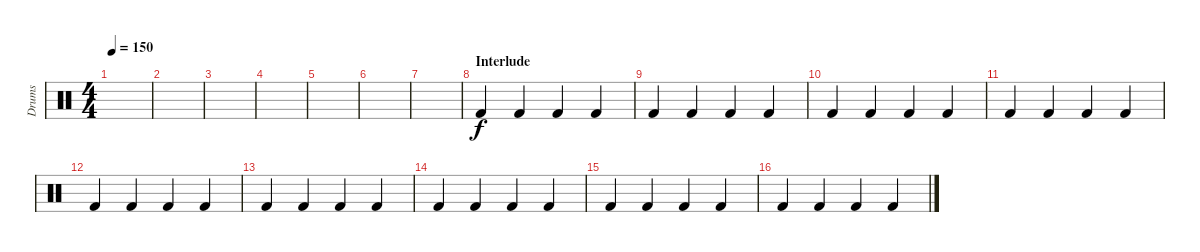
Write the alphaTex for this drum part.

\track ("Drums" "Drums") {instrument percussion}
\staff {score}
\articulation defaults
\ts (4 4)
\tempo 150
\clef neutral
\ks c
|
|
|
|
|
|
|
\section ("" "Interlude")
"Kick (hit) 2".4 "Kick (hit) 2".4 "Kick (hit) 2".4 "Kick (hit) 2".4 |
"Kick (hit) 2".4 "Kick (hit) 2".4 "Kick (hit) 2".4 "Kick (hit) 2".4 |
"Kick (hit) 2".4 "Kick (hit) 2".4 "Kick (hit) 2".4 "Kick (hit) 2".4 |
"Kick (hit) 2".4 "Kick (hit) 2".4 "Kick (hit) 2".4 "Kick (hit) 2".4 |
"Kick (hit) 2".4 "Kick (hit) 2".4 "Kick (hit) 2".4 "Kick (hit) 2".4 |
"Kick (hit) 2".4 "Kick (hit) 2".4 "Kick (hit) 2".4 "Kick (hit) 2".4 |
"Kick (hit) 2".4 "Kick (hit) 2".4 "Kick (hit) 2".4 "Kick (hit) 2".4 |
"Kick (hit) 2".4 "Kick (hit) 2".4 "Kick (hit) 2".4 "Kick (hit) 2".4 |
"Kick (hit) 2".4 "Kick (hit) 2".4 "Kick (hit) 2".4 "Kick (hit) 2".4
